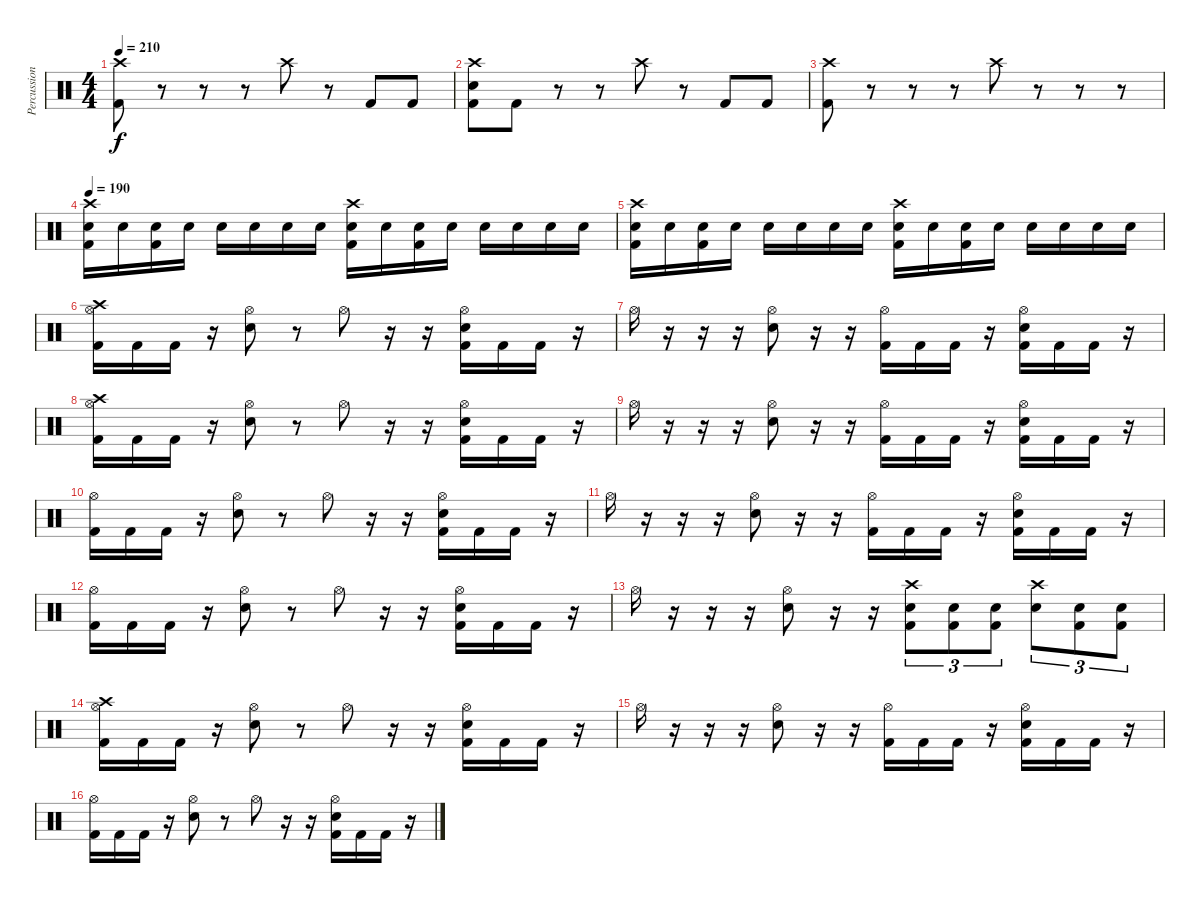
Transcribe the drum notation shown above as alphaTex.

\track ("Percussion" "Percussion") {instrument percussion}
\staff {score}
\articulation defaults
\ts (4 4)
\tempo 210
\clef neutral
\ks c
("Crash high (hit)" "Kick (hit) 2").8{dy f} r.8 r.8 r.8 "Crash high (hit)".8 r.8 "Kick (hit) 2".8 "Kick (hit) 2".8 |
("Crash high (hit)" "Snare (hit) 2" "Kick (hit) 2").8 "Kick (hit) 2".8 r.8 r.8 "Crash high (hit)".8 r.8 "Kick (hit) 2".8 "Kick (hit) 2".8 |
("Crash high (hit)" "Kick (hit) 2").8 r.8 r.8 r.8 "Crash high (hit)".8 r.8 r.8 r.8 |
\tempo 190
("Crash high (hit)" "Snare (hit) 2" "Kick (hit) 2").16 "Snare (hit) 2".16 ("Snare (hit) 2" "Kick (hit) 2").16 "Snare (hit) 2".16 "Snare (hit) 2".16 "Snare (hit) 2".16 "Snare (hit) 2".16 "Snare (hit) 2".16 ("Crash high (hit)" "Snare (hit) 2" "Kick (hit) 2").16 "Snare (hit) 2".16 ("Snare (hit) 2" "Kick (hit) 2").16 "Snare (hit) 2".16 "Snare (hit) 2".16 "Snare (hit) 2".16 "Snare (hit) 2".16 "Snare (hit) 2".16 |
("Crash high (hit)" "Snare (hit) 2" "Kick (hit) 2").16 "Snare (hit) 2".16 ("Snare (hit) 2" "Kick (hit) 2").16 "Snare (hit) 2".16 "Snare (hit) 2".16 "Snare (hit) 2".16 "Snare (hit) 2".16 "Snare (hit) 2".16 ("Crash high (hit)" "Snare (hit) 2" "Kick (hit) 2").16 "Snare (hit) 2".16 ("Snare (hit) 2" "Kick (hit) 2").16 "Snare (hit) 2".16 "Snare (hit) 2".16 "Snare (hit) 2".16 "Snare (hit) 2".16 "Snare (hit) 2".16 |
("Crash high (hit)" "Hi-Hat (open)" "Kick (hit) 2").16 "Kick (hit) 2".16 "Kick (hit) 2".16 r.16 ("Hi-Hat (open)" "Snare (hit) 2").8 r.8 "Hi-Hat (open)".8 r.16 r.16 ("Hi-Hat (open)" "Snare (hit) 2" "Kick (hit) 2").16 "Kick (hit) 2".16 "Kick (hit) 2".16 r.16 |
"Hi-Hat (open)".16 r.16 r.16 r.16 ("Hi-Hat (open)" "Snare (hit) 2").8 r.16 r.16 ("Hi-Hat (open)" "Kick (hit) 2").16 "Kick (hit) 2".16 "Kick (hit) 2".16 r.16 ("Hi-Hat (open)" "Snare (hit) 2" "Kick (hit) 2").16 "Kick (hit) 2".16 "Kick (hit) 2".16 r.16 |
("Crash high (hit)" "Hi-Hat (open)" "Kick (hit) 2").16 "Kick (hit) 2".16 "Kick (hit) 2".16 r.16 ("Hi-Hat (open)" "Snare (hit) 2").8 r.8 "Hi-Hat (open)".8 r.16 r.16 ("Hi-Hat (open)" "Snare (hit) 2" "Kick (hit) 2").16 "Kick (hit) 2".16 "Kick (hit) 2".16 r.16 |
"Hi-Hat (open)".16 r.16 r.16 r.16 ("Hi-Hat (open)" "Snare (hit) 2").8 r.16 r.16 ("Hi-Hat (open)" "Kick (hit) 2").16 "Kick (hit) 2".16 "Kick (hit) 2".16 r.16 ("Hi-Hat (open)" "Snare (hit) 2" "Kick (hit) 2").16 "Kick (hit) 2".16 "Kick (hit) 2".16 r.16 |
("Hi-Hat (open)" "Kick (hit) 2").16 "Kick (hit) 2".16 "Kick (hit) 2".16 r.16 ("Hi-Hat (open)" "Snare (hit) 2").8 r.8 "Hi-Hat (open)".8 r.16 r.16 ("Hi-Hat (open)" "Snare (hit) 2" "Kick (hit) 2").16 "Kick (hit) 2".16 "Kick (hit) 2".16 r.16 |
"Hi-Hat (open)".16 r.16 r.16 r.16 ("Hi-Hat (open)" "Snare (hit) 2").8 r.16 r.16 ("Hi-Hat (open)" "Kick (hit) 2").16 "Kick (hit) 2".16 "Kick (hit) 2".16 r.16 ("Hi-Hat (open)" "Snare (hit) 2" "Kick (hit) 2").16 "Kick (hit) 2".16 "Kick (hit) 2".16 r.16 |
("Hi-Hat (open)" "Kick (hit) 2").16 "Kick (hit) 2".16 "Kick (hit) 2".16 r.16 ("Hi-Hat (open)" "Snare (hit) 2").8 r.8 "Hi-Hat (open)".8 r.16 r.16 ("Hi-Hat (open)" "Snare (hit) 2" "Kick (hit) 2").16 "Kick (hit) 2".16 "Kick (hit) 2".16 r.16 |
"Hi-Hat (open)".16 r.16 r.16 r.16 ("Hi-Hat (open)" "Snare (hit) 2").8 r.16 r.16 ("Crash high (hit)" "Snare (hit) 2" "Kick (hit) 2").8{tu (3 2)} ("Snare (hit) 2" "Kick (hit) 2").8{tu (3 2)} ("Snare (hit) 2" "Kick (hit) 2").8{tu (3 2)} ("Crash high (hit)" "Snare (hit) 2").8{tu (3 2)} ("Snare (hit) 2" "Kick (hit) 2").8{tu (3 2)} ("Snare (hit) 2" "Kick (hit) 2").8{tu (3 2)} |
("Crash high (hit)" "Hi-Hat (open)" "Kick (hit) 2").16 "Kick (hit) 2".16 "Kick (hit) 2".16 r.16 ("Hi-Hat (open)" "Snare (hit) 2").8 r.8 "Hi-Hat (open)".8 r.16 r.16 ("Hi-Hat (open)" "Snare (hit) 2" "Kick (hit) 2").16 "Kick (hit) 2".16 "Kick (hit) 2".16 r.16 |
"Hi-Hat (open)".16 r.16 r.16 r.16 ("Hi-Hat (open)" "Snare (hit) 2").8 r.16 r.16 ("Hi-Hat (open)" "Kick (hit) 2").16 "Kick (hit) 2".16 "Kick (hit) 2".16 r.16 ("Hi-Hat (open)" "Snare (hit) 2" "Kick (hit) 2").16 "Kick (hit) 2".16 "Kick (hit) 2".16 r.16 |
("Hi-Hat (open)" "Kick (hit) 2").16 "Kick (hit) 2".16 "Kick (hit) 2".16 r.16 ("Hi-Hat (open)" "Snare (hit) 2").8 r.8 "Hi-Hat (open)".8 r.16 r.16 ("Hi-Hat (open)" "Snare (hit) 2" "Kick (hit) 2").16 "Kick (hit) 2".16 "Kick (hit) 2".16 r.16
